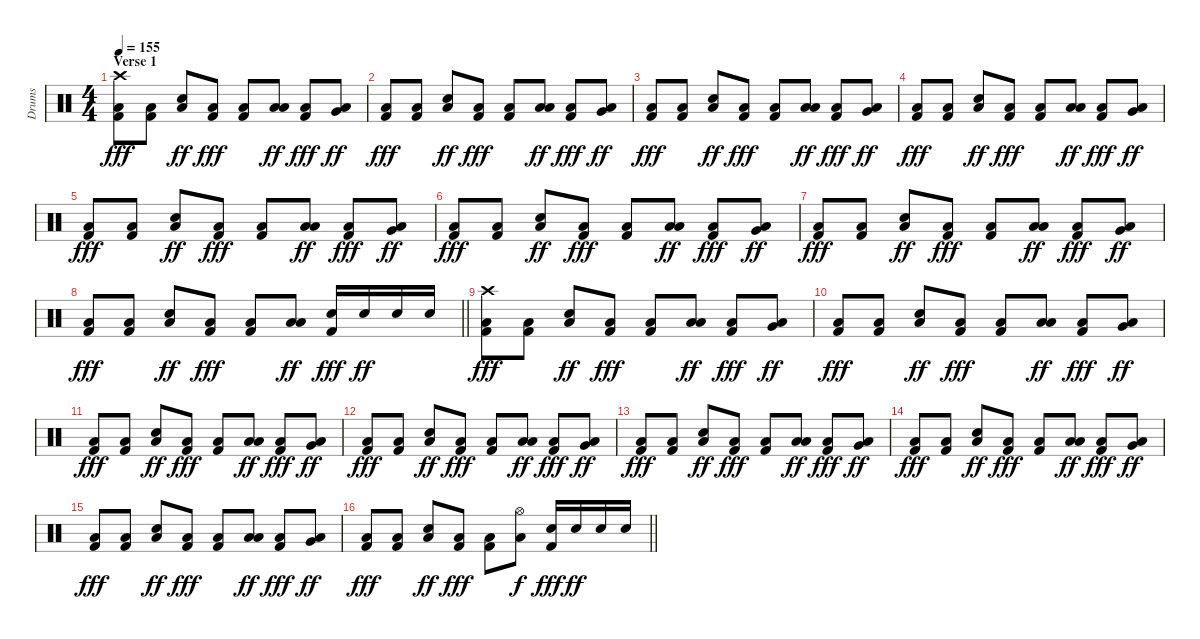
\track ("Drums" "Drums") {instrument percussion}
\staff {score}
\articulation defaults
\ts (4 4)
\section ("" "Verse 1")
\tempo 155
\clef neutral
\ks c
("Crash high (hit)" "Low Floor Tom (hit)" "Kick (hit) 2").8{dy fff} ("Low Floor Tom (hit)" "Kick (hit) 2").8 ("Snare (hit) 2" "Low Floor Tom (hit)").8{dy ff} ("Low Floor Tom (hit)" "Kick (hit) 2").8{dy fff} ("Low Floor Tom (hit)" "Kick (hit) 2").8 ("Low Tom (hit)" "Low Floor Tom (hit)").8{dy ff} ("Low Floor Tom (hit)" "Kick (hit) 2").8{dy fff} ("Very Low Tom (hit)" "Low Floor Tom (hit)").8{dy ff} |
("Low Floor Tom (hit)" "Kick (hit) 2").8{dy fff} ("Low Floor Tom (hit)" "Kick (hit) 2").8 ("Snare (hit) 2" "Low Floor Tom (hit)").8{dy ff} ("Low Floor Tom (hit)" "Kick (hit) 2").8{dy fff} ("Low Floor Tom (hit)" "Kick (hit) 2").8 ("Low Tom (hit)" "Low Floor Tom (hit)").8{dy ff} ("Low Floor Tom (hit)" "Kick (hit) 2").8{dy fff} ("Very Low Tom (hit)" "Low Floor Tom (hit)").8{dy ff} |
("Low Floor Tom (hit)" "Kick (hit) 2").8{dy fff} ("Low Floor Tom (hit)" "Kick (hit) 2").8 ("Snare (hit) 2" "Low Floor Tom (hit)").8{dy ff} ("Low Floor Tom (hit)" "Kick (hit) 2").8{dy fff} ("Low Floor Tom (hit)" "Kick (hit) 2").8 ("Low Tom (hit)" "Low Floor Tom (hit)").8{dy ff} ("Low Floor Tom (hit)" "Kick (hit) 2").8{dy fff} ("Very Low Tom (hit)" "Low Floor Tom (hit)").8{dy ff} |
("Low Floor Tom (hit)" "Kick (hit) 2").8{dy fff} ("Low Floor Tom (hit)" "Kick (hit) 2").8 ("Snare (hit) 2" "Low Floor Tom (hit)").8{dy ff} ("Low Floor Tom (hit)" "Kick (hit) 2").8{dy fff} ("Low Floor Tom (hit)" "Kick (hit) 2").8 ("Low Tom (hit)" "Low Floor Tom (hit)").8{dy ff} ("Low Floor Tom (hit)" "Kick (hit) 2").8{dy fff} ("Very Low Tom (hit)" "Low Floor Tom (hit)").8{dy ff} |
("Low Floor Tom (hit)" "Kick (hit) 2").8{dy fff} ("Low Floor Tom (hit)" "Kick (hit) 2").8 ("Snare (hit) 2" "Low Floor Tom (hit)").8{dy ff} ("Low Floor Tom (hit)" "Kick (hit) 2").8{dy fff} ("Low Floor Tom (hit)" "Kick (hit) 2").8 ("Low Tom (hit)" "Low Floor Tom (hit)").8{dy ff} ("Low Floor Tom (hit)" "Kick (hit) 2").8{dy fff} ("Very Low Tom (hit)" "Low Floor Tom (hit)").8{dy ff} |
("Low Floor Tom (hit)" "Kick (hit) 2").8{dy fff} ("Low Floor Tom (hit)" "Kick (hit) 2").8 ("Snare (hit) 2" "Low Floor Tom (hit)").8{dy ff} ("Low Floor Tom (hit)" "Kick (hit) 2").8{dy fff} ("Low Floor Tom (hit)" "Kick (hit) 2").8 ("Low Tom (hit)" "Low Floor Tom (hit)").8{dy ff} ("Low Floor Tom (hit)" "Kick (hit) 2").8{dy fff} ("Very Low Tom (hit)" "Low Floor Tom (hit)").8{dy ff} |
("Low Floor Tom (hit)" "Kick (hit) 2").8{dy fff} ("Low Floor Tom (hit)" "Kick (hit) 2").8 ("Snare (hit) 2" "Low Floor Tom (hit)").8{dy ff} ("Low Floor Tom (hit)" "Kick (hit) 2").8{dy fff} ("Low Floor Tom (hit)" "Kick (hit) 2").8 ("Low Tom (hit)" "Low Floor Tom (hit)").8{dy ff} ("Low Floor Tom (hit)" "Kick (hit) 2").8{dy fff} ("Very Low Tom (hit)" "Low Floor Tom (hit)").8{dy ff} |
\barLineRight lightlight
("Low Floor Tom (hit)" "Kick (hit) 2").8{dy fff} ("Low Floor Tom (hit)" "Kick (hit) 2").8 ("Snare (hit) 2" "Low Floor Tom (hit)").8{dy ff} ("Low Floor Tom (hit)" "Kick (hit) 2").8{dy fff} ("Low Floor Tom (hit)" "Kick (hit) 2").8 ("Low Tom (hit)" "Low Floor Tom (hit)").8{dy ff} ("Snare (hit) 2" "Kick (hit) 2").16{dy fff} "Snare (hit) 2".16{dy ff} "Snare (hit) 2".16 "Snare (hit) 2".16 |
("Crash high (hit)" "Low Floor Tom (hit)" "Kick (hit) 2").8{dy fff} ("Low Floor Tom (hit)" "Kick (hit) 2").8 ("Snare (hit) 2" "Low Floor Tom (hit)").8{dy ff} ("Low Floor Tom (hit)" "Kick (hit) 2").8{dy fff} ("Low Floor Tom (hit)" "Kick (hit) 2").8 ("Low Tom (hit)" "Low Floor Tom (hit)").8{dy ff} ("Low Floor Tom (hit)" "Kick (hit) 2").8{dy fff} ("Very Low Tom (hit)" "Low Floor Tom (hit)").8{dy ff} |
("Low Floor Tom (hit)" "Kick (hit) 2").8{dy fff} ("Low Floor Tom (hit)" "Kick (hit) 2").8 ("Snare (hit) 2" "Low Floor Tom (hit)").8{dy ff} ("Low Floor Tom (hit)" "Kick (hit) 2").8{dy fff} ("Low Floor Tom (hit)" "Kick (hit) 2").8 ("Low Tom (hit)" "Low Floor Tom (hit)").8{dy ff} ("Low Floor Tom (hit)" "Kick (hit) 2").8{dy fff} ("Very Low Tom (hit)" "Low Floor Tom (hit)").8{dy ff} |
("Low Floor Tom (hit)" "Kick (hit) 2").8{dy fff} ("Low Floor Tom (hit)" "Kick (hit) 2").8 ("Snare (hit) 2" "Low Floor Tom (hit)").8{dy ff} ("Low Floor Tom (hit)" "Kick (hit) 2").8{dy fff} ("Low Floor Tom (hit)" "Kick (hit) 2").8 ("Low Tom (hit)" "Low Floor Tom (hit)").8{dy ff} ("Low Floor Tom (hit)" "Kick (hit) 2").8{dy fff} ("Very Low Tom (hit)" "Low Floor Tom (hit)").8{dy ff} |
("Low Floor Tom (hit)" "Kick (hit) 2").8{dy fff} ("Low Floor Tom (hit)" "Kick (hit) 2").8 ("Snare (hit) 2" "Low Floor Tom (hit)").8{dy ff} ("Low Floor Tom (hit)" "Kick (hit) 2").8{dy fff} ("Low Floor Tom (hit)" "Kick (hit) 2").8 ("Low Tom (hit)" "Low Floor Tom (hit)").8{dy ff} ("Low Floor Tom (hit)" "Kick (hit) 2").8{dy fff} ("Very Low Tom (hit)" "Low Floor Tom (hit)").8{dy ff} |
("Low Floor Tom (hit)" "Kick (hit) 2").8{dy fff} ("Low Floor Tom (hit)" "Kick (hit) 2").8 ("Snare (hit) 2" "Low Floor Tom (hit)").8{dy ff} ("Low Floor Tom (hit)" "Kick (hit) 2").8{dy fff} ("Low Floor Tom (hit)" "Kick (hit) 2").8 ("Low Tom (hit)" "Low Floor Tom (hit)").8{dy ff} ("Low Floor Tom (hit)" "Kick (hit) 2").8{dy fff} ("Very Low Tom (hit)" "Low Floor Tom (hit)").8{dy ff} |
("Low Floor Tom (hit)" "Kick (hit) 2").8{dy fff} ("Low Floor Tom (hit)" "Kick (hit) 2").8 ("Snare (hit) 2" "Low Floor Tom (hit)").8{dy ff} ("Low Floor Tom (hit)" "Kick (hit) 2").8{dy fff} ("Low Floor Tom (hit)" "Kick (hit) 2").8 ("Low Tom (hit)" "Low Floor Tom (hit)").8{dy ff} ("Low Floor Tom (hit)" "Kick (hit) 2").8{dy fff} ("Very Low Tom (hit)" "Low Floor Tom (hit)").8{dy ff} |
("Low Floor Tom (hit)" "Kick (hit) 2").8{dy fff} ("Low Floor Tom (hit)" "Kick (hit) 2").8 ("Snare (hit) 2" "Low Floor Tom (hit)").8{dy ff} ("Low Floor Tom (hit)" "Kick (hit) 2").8{dy fff} ("Low Floor Tom (hit)" "Kick (hit) 2").8 ("Low Tom (hit)" "Low Floor Tom (hit)").8{dy ff} ("Low Floor Tom (hit)" "Kick (hit) 2").8{dy fff} ("Very Low Tom (hit)" "Low Floor Tom (hit)").8{dy ff} |
\barLineRight lightlight
("Low Floor Tom (hit)" "Kick (hit) 2").8{dy fff} ("Low Floor Tom (hit)" "Kick (hit) 2").8 ("Snare (hit) 2" "Low Floor Tom (hit)").8{dy ff} ("Low Floor Tom (hit)" "Kick (hit) 2").8{dy fff} ("Low Floor Tom (hit)" "Kick (hit) 2").8 ("Hi-Hat (open)" "Low Floor Tom (hit)").8{dy f} ("Snare (hit) 2" "Kick (hit) 2").16{dy fff} "Snare (hit) 2".16{dy ff} "Snare (hit) 2".16 "Snare (hit) 2".16
